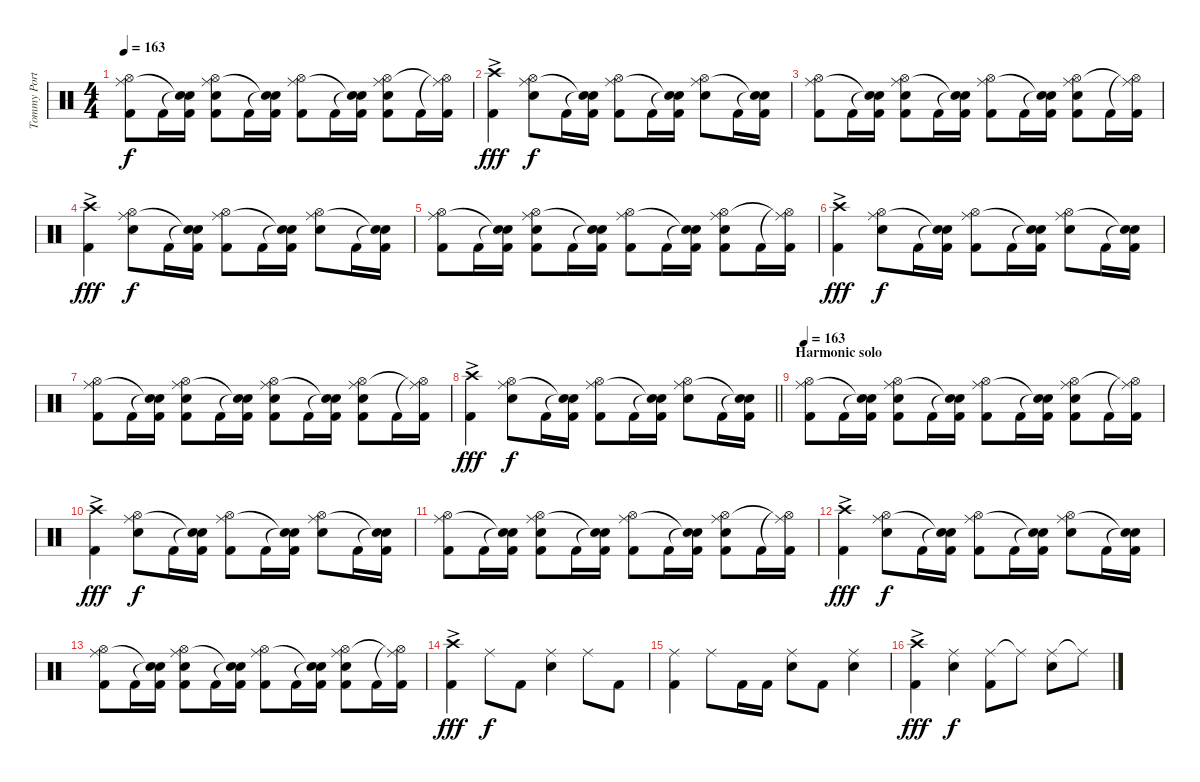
\track ("Tommy Portimo" "Tommy Port") {instrument percussion}
\staff {score}
\articulation defaults
\ts (4 4)
\tempo 163
\clef neutral
\ks c
("Hi-Hat (open)" "Ride (middle)" "Kick (hit) 2").8{dy f} "Kick (hit) 2".16 ("Snare (hit)"{t} "Snare (hit)"{t} "Kick (hit) 2").16 ("Hi-Hat (open)" "Ride (middle)" "Electric Snare (hit)" "Kick (hit) 2").8 "Kick (hit) 2".16 ("Snare (hit)"{t} "Snare (hit)"{t} "Kick (hit) 2").16 ("Hi-Hat (open)" "Ride (middle)" "Kick (hit) 2").8 "Kick (hit) 2".16 ("Snare (hit)"{t} "Snare (hit)"{t} "Kick (hit) 2").16 ("Hi-Hat (open)" "Ride (middle)" "Electric Snare (hit)" "Kick (hit) 2").8 "Kick (hit) 2".16 ("Hi-Hat (open)"{t} "Ride (middle)"{t} "Kick (hit) 2").16 |
("Crash high (hit)"{ac} "Kick (hit) 2").4{dy fff} ("Hi-Hat (open)" "Ride (middle)" "Electric Snare (hit)").8{dy f} "Kick (hit) 2".16 ("Snare (hit)"{t} "Snare (hit)"{t} "Kick (hit) 2").16 ("Hi-Hat (open)" "Ride (middle)" "Kick (hit) 2").8 "Kick (hit) 2".16 ("Snare (hit)"{t} "Snare (hit)"{t} "Kick (hit) 2").16 ("Hi-Hat (open)" "Ride (middle)" "Electric Snare (hit)").8 "Kick (hit) 2".16 ("Snare (hit)"{t} "Snare (hit)"{t} "Kick (hit) 2").16 |
("Hi-Hat (open)" "Ride (middle)" "Kick (hit) 2").8 "Kick (hit) 2".16 ("Snare (hit)"{t} "Snare (hit)"{t} "Kick (hit) 2").16 ("Hi-Hat (open)" "Ride (middle)" "Electric Snare (hit)" "Kick (hit) 2").8 "Kick (hit) 2".16 ("Snare (hit)"{t} "Snare (hit)"{t} "Kick (hit) 2").16 ("Hi-Hat (open)" "Ride (middle)" "Kick (hit) 2").8 "Kick (hit) 2".16 ("Snare (hit)"{t} "Snare (hit)"{t} "Kick (hit) 2").16 ("Hi-Hat (open)" "Ride (middle)" "Electric Snare (hit)" "Kick (hit) 2").8 "Kick (hit) 2".16 ("Hi-Hat (open)"{t} "Ride (middle)"{t} "Kick (hit) 2").16 |
("Crash high (hit)"{ac} "Kick (hit) 2").4{dy fff} ("Hi-Hat (open)" "Ride (middle)" "Electric Snare (hit)").8{dy f} "Kick (hit) 2".16 ("Snare (hit)"{t} "Snare (hit)"{t} "Kick (hit) 2").16 ("Hi-Hat (open)" "Ride (middle)" "Kick (hit) 2").8 "Kick (hit) 2".16 ("Snare (hit)"{t} "Snare (hit)"{t} "Kick (hit) 2").16 ("Hi-Hat (open)" "Ride (middle)" "Electric Snare (hit)").8 "Kick (hit) 2".16 ("Snare (hit)"{t} "Snare (hit)"{t} "Kick (hit) 2").16 |
("Hi-Hat (open)" "Ride (middle)" "Kick (hit) 2").8 "Kick (hit) 2".16 ("Snare (hit)"{t} "Snare (hit)"{t} "Kick (hit) 2").16 ("Hi-Hat (open)" "Ride (middle)" "Electric Snare (hit)" "Kick (hit) 2").8 "Kick (hit) 2".16 ("Snare (hit)"{t} "Snare (hit)"{t} "Kick (hit) 2").16 ("Hi-Hat (open)" "Ride (middle)" "Kick (hit) 2").8 "Kick (hit) 2".16 ("Snare (hit)"{t} "Snare (hit)"{t} "Kick (hit) 2").16 ("Hi-Hat (open)" "Ride (middle)" "Electric Snare (hit)" "Kick (hit) 2").8 "Kick (hit) 2".16 ("Hi-Hat (open)"{t} "Ride (middle)"{t} "Kick (hit) 2").16 |
("Crash high (hit)"{ac} "Kick (hit) 2").4{dy fff} ("Hi-Hat (open)" "Ride (middle)" "Electric Snare (hit)").8{dy f} "Kick (hit) 2".16 ("Snare (hit)"{t} "Snare (hit)"{t} "Kick (hit) 2").16 ("Hi-Hat (open)" "Ride (middle)" "Kick (hit) 2").8 "Kick (hit) 2".16 ("Snare (hit)"{t} "Snare (hit)"{t} "Kick (hit) 2").16 ("Hi-Hat (open)" "Ride (middle)" "Electric Snare (hit)").8 "Kick (hit) 2".16 ("Snare (hit)"{t} "Snare (hit)"{t} "Kick (hit) 2").16 |
("Hi-Hat (open)" "Ride (middle)" "Kick (hit) 2").8 "Kick (hit) 2".16 ("Snare (hit)"{t} "Snare (hit)"{t} "Kick (hit) 2").16 ("Hi-Hat (open)" "Ride (middle)" "Electric Snare (hit)" "Kick (hit) 2").8 "Kick (hit) 2".16 ("Snare (hit)"{t} "Snare (hit)"{t} "Kick (hit) 2").16 ("Hi-Hat (open)" "Ride (middle)" "Electric Snare (hit)" "Kick (hit) 2").8 "Kick (hit) 2".16 ("Snare (hit)"{t} "Snare (hit)"{t} "Kick (hit) 2").16 ("Hi-Hat (open)" "Ride (middle)" "Electric Snare (hit)" "Kick (hit) 2").8 "Kick (hit) 2".16 ("Hi-Hat (open)"{t} "Ride (middle)"{t} "Kick (hit) 2").16 |
\barLineRight lightlight
("Crash high (hit)"{ac} "Kick (hit) 2").4{dy fff} ("Hi-Hat (open)" "Ride (middle)" "Electric Snare (hit)").8{dy f} "Kick (hit) 2".16 ("Snare (hit)"{t} "Snare (hit)"{t} "Kick (hit) 2").16 ("Hi-Hat (open)" "Ride (middle)" "Kick (hit) 2").8 "Kick (hit) 2".16 ("Snare (hit)"{t} "Snare (hit)"{t} "Kick (hit) 2").16 ("Hi-Hat (open)" "Ride (middle)" "Electric Snare (hit)").8 "Kick (hit) 2".16 ("Snare (hit)"{t} "Snare (hit)"{t} "Kick (hit) 2").16 |
\section ("" "Harmonic solo")
\tempo 163
("Hi-Hat (open)" "Ride (middle)" "Kick (hit) 2").8 "Kick (hit) 2".16 ("Snare (hit)"{t} "Snare (hit)"{t} "Kick (hit) 2").16 ("Hi-Hat (open)" "Ride (middle)" "Electric Snare (hit)" "Kick (hit) 2").8 "Kick (hit) 2".16 ("Snare (hit)"{t} "Snare (hit)"{t} "Kick (hit) 2").16 ("Hi-Hat (open)" "Ride (middle)" "Kick (hit) 2").8 "Kick (hit) 2".16 ("Snare (hit)"{t} "Snare (hit)"{t} "Kick (hit) 2").16 ("Hi-Hat (open)" "Ride (middle)" "Electric Snare (hit)" "Kick (hit) 2").8 "Kick (hit) 2".16 ("Hi-Hat (open)"{t} "Ride (middle)"{t} "Kick (hit) 2").16 |
("Crash high (hit)"{ac} "Kick (hit) 2").4{dy fff} ("Hi-Hat (open)" "Ride (middle)" "Electric Snare (hit)").8{dy f} "Kick (hit) 2".16 ("Snare (hit)"{t} "Snare (hit)"{t} "Kick (hit) 2").16 ("Hi-Hat (open)" "Ride (middle)" "Kick (hit) 2").8 "Kick (hit) 2".16 ("Snare (hit)"{t} "Snare (hit)"{t} "Kick (hit) 2").16 ("Hi-Hat (open)" "Ride (middle)" "Electric Snare (hit)").8 "Kick (hit) 2".16 ("Snare (hit)"{t} "Snare (hit)"{t} "Kick (hit) 2").16 |
("Hi-Hat (open)" "Ride (middle)" "Kick (hit) 2").8 "Kick (hit) 2".16 ("Snare (hit)"{t} "Snare (hit)"{t} "Kick (hit) 2").16 ("Hi-Hat (open)" "Ride (middle)" "Electric Snare (hit)" "Kick (hit) 2").8 "Kick (hit) 2".16 ("Snare (hit)"{t} "Snare (hit)"{t} "Kick (hit) 2").16 ("Hi-Hat (open)" "Ride (middle)" "Kick (hit) 2").8 "Kick (hit) 2".16 ("Snare (hit)"{t} "Snare (hit)"{t} "Kick (hit) 2").16 ("Hi-Hat (open)" "Ride (middle)" "Electric Snare (hit)" "Kick (hit) 2").8 "Kick (hit) 2".16 ("Hi-Hat (open)"{t} "Ride (middle)"{t} "Kick (hit) 2").16 |
("Crash high (hit)"{ac} "Kick (hit) 2").4{dy fff} ("Hi-Hat (open)" "Ride (middle)" "Electric Snare (hit)").8{dy f} "Kick (hit) 2".16 ("Snare (hit)"{t} "Snare (hit)"{t} "Kick (hit) 2").16 ("Hi-Hat (open)" "Ride (middle)" "Kick (hit) 2").8 "Kick (hit) 2".16 ("Snare (hit)"{t} "Snare (hit)"{t} "Kick (hit) 2").16 ("Hi-Hat (open)" "Ride (middle)" "Electric Snare (hit)").8 "Kick (hit) 2".16 ("Snare (hit)"{t} "Snare (hit)"{t} "Kick (hit) 2").16 |
("Hi-Hat (open)" "Ride (middle)" "Kick (hit) 2").8 "Kick (hit) 2".16 ("Snare (hit)"{t} "Snare (hit)"{t} "Kick (hit) 2").16 ("Hi-Hat (open)" "Ride (middle)" "Electric Snare (hit)" "Kick (hit) 2").8 "Kick (hit) 2".16 ("Snare (hit)"{t} "Snare (hit)"{t} "Kick (hit) 2").16 ("Hi-Hat (open)" "Ride (middle)" "Kick (hit) 2").8 "Kick (hit) 2".16 ("Snare (hit)"{t} "Snare (hit)"{t} "Kick (hit) 2").16 ("Hi-Hat (open)" "Ride (middle)" "Electric Snare (hit)" "Kick (hit) 2").8 "Kick (hit) 2".16 ("Hi-Hat (open)"{t} "Ride (middle)"{t} "Kick (hit) 2").16 |
("Crash high (hit)"{ac} "Kick (hit) 2").4{dy fff} "Ride (middle)".8{dy f} "Kick (hit) 2".8 ("Ride (middle)" "Electric Snare (hit)").4 "Ride (middle)".8 "Kick (hit) 2".8 |
("Ride (middle)" "Kick (hit) 2").4 "Ride (middle)".8 "Kick (hit) 2".16 "Kick (hit) 2".16 ("Ride (middle)" "Electric Snare (hit)").8 "Kick (hit) 2".8 ("Ride (middle)" "Electric Snare (hit)").4 |
("Crash high (hit)"{ac} "Kick (hit) 2").4{dy fff} ("Ride (middle)" "Electric Snare (hit)").4{dy f} ("Ride (middle)" "Kick (hit) 2").8 "Ride (middle)"{t}.8 ("Ride (middle)" "Electric Snare (hit)").8 "Ride (middle)"{t}.8
